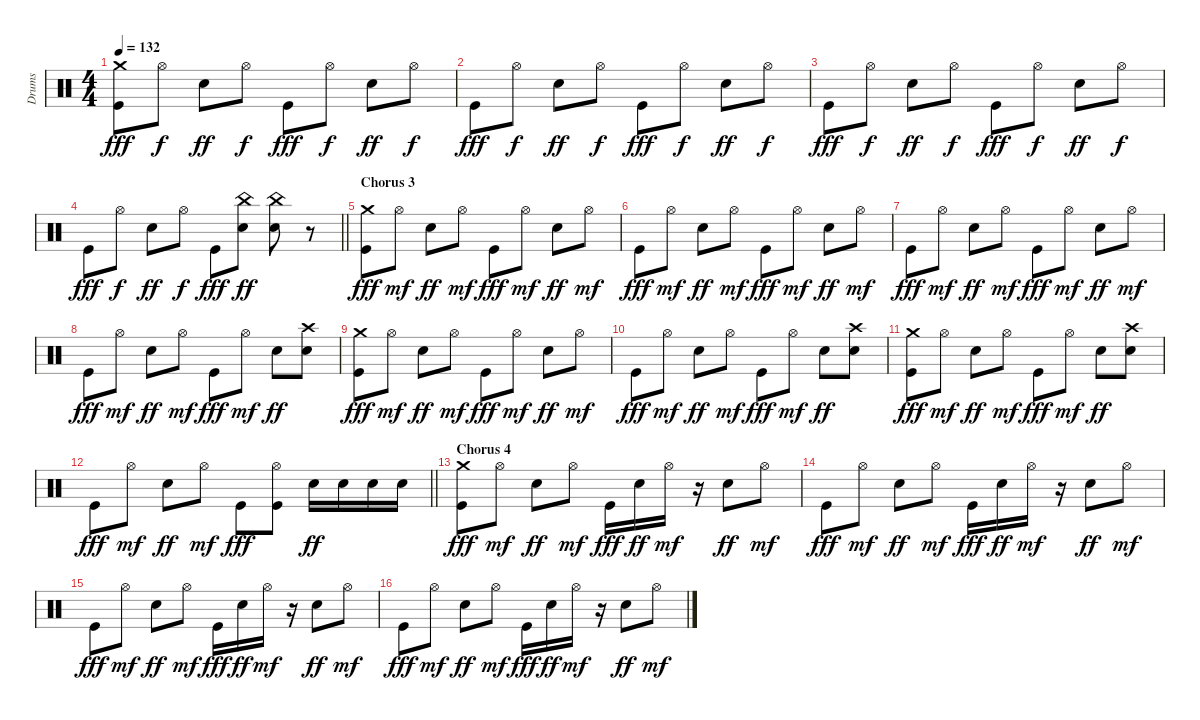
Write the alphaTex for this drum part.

\track ("Drums" "Drums") {instrument percussion}
\staff {score}
\articulation defaults
\ts (4 4)
\tempo 132
\clef neutral
\ks c
("Crash medium (hit)" "Kick (hit)").8{dy fff} "Hi-Hat (open)".8{dy f} "Snare (hit) 2".8{dy ff} "Hi-Hat (open)".8{dy f} "Kick (hit)".8{dy fff} "Hi-Hat (open)".8{dy f} "Snare (hit) 2".8{dy ff} "Hi-Hat (open)".8{dy f} |
"Kick (hit)".8{dy fff} "Hi-Hat (open)".8{dy f} "Snare (hit) 2".8{dy ff} "Hi-Hat (open)".8{dy f} "Kick (hit)".8{dy fff} "Hi-Hat (open)".8{dy f} "Snare (hit) 2".8{dy ff} "Hi-Hat (open)".8{dy f} |
"Kick (hit)".8{dy fff} "Hi-Hat (open)".8{dy f} "Snare (hit) 2".8{dy ff} "Hi-Hat (open)".8{dy f} "Kick (hit)".8{dy fff} "Hi-Hat (open)".8{dy f} "Snare (hit) 2".8{dy ff} "Hi-Hat (open)".8{dy f} |
\barLineRight lightlight "Kick (hit)".8{dy fff} "Hi-Hat (open)".8{dy f} "Snare (hit) 2".8{dy ff} "Hi-Hat (open)".8{dy f} "Kick (hit)".8{dy fff}
("China (hit)" "Snare (hit) 2").8{dy ff} ("China (hit)" "Snare (hit) 2").8 r.8 |
\section ("" "Chorus 3")
("Crash medium (hit)" "Kick (hit)").8{dy fff} "Hi-Hat (open)".8{dy mf} "Snare (hit) 2".8{dy ff} "Hi-Hat (open)".8{dy mf} "Kick (hit)".8{dy fff} "Hi-Hat (open)".8{dy mf} "Snare (hit) 2".8{dy ff} "Hi-Hat (open)".8{dy mf} |
"Kick (hit)".8{dy fff} "Hi-Hat (open)".8{dy mf} "Snare (hit) 2".8{dy ff} "Hi-Hat (open)".8{dy mf} "Kick (hit)".8{dy fff} "Hi-Hat (open)".8{dy mf} "Snare (hit) 2".8{dy ff} "Hi-Hat (open)".8{dy mf} |
"Kick (hit)".8{dy fff} "Hi-Hat (open)".8{dy mf} "Snare (hit) 2".8{dy ff} "Hi-Hat (open)".8{dy mf} "Kick (hit)".8{dy fff} "Hi-Hat (open)".8{dy mf} "Snare (hit) 2".8{dy ff} "Hi-Hat (open)".8{dy mf} |
"Kick (hit)".8{dy fff} "Hi-Hat (open)".8{dy mf} "Snare (hit) 2".8{dy ff} "Hi-Hat (open)".8{dy mf} "Kick (hit)".8{dy fff} "Hi-Hat (open)".8{dy mf} "Snare (hit) 2".8{dy ff} ("Crash high (hit)" "Snare (hit) 2").8 |
("Crash medium (hit)" "Kick (hit)").8{dy fff} "Hi-Hat (open)".8{dy mf} "Snare (hit) 2".8{dy ff} "Hi-Hat (open)".8{dy mf} "Kick (hit)".8{dy fff} "Hi-Hat (open)".8{dy mf} "Snare (hit) 2".8{dy ff} "Hi-Hat (open)".8{dy mf} |
"Kick (hit)".8{dy fff} "Hi-Hat (open)".8{dy mf} "Snare (hit) 2".8{dy ff} "Hi-Hat (open)".8{dy mf} "Kick (hit)".8{dy fff} "Hi-Hat (open)".8{dy mf} "Snare (hit) 2".8{dy ff} ("Crash high (hit)" "Snare (hit) 2").8 |
("Crash medium (hit)" "Kick (hit)").8{dy fff} "Hi-Hat (open)".8{dy mf} "Snare (hit) 2".8{dy ff} "Hi-Hat (open)".8{dy mf} "Kick (hit)".8{dy fff} "Hi-Hat (open)".8{dy mf} "Snare (hit) 2".8{dy ff} ("Crash high (hit)" "Snare (hit) 2").8 |
\barLineRight lightlight "Kick (hit)".8{dy fff} "Hi-Hat (open)".8{dy mf} "Snare (hit) 2".8{dy ff} "Hi-Hat (open)".8{dy mf} "Kick (hit)".8{dy fff}
("Hi-Hat (open)" "Kick (hit)").8 "Snare (hit) 2".16{dy ff} "Snare (hit) 2".16 "Snare (hit) 2".16 "Snare (hit) 2".16 |
\section ("" "Chorus 4")
("Crash medium (hit)" "Kick (hit)").8{dy fff} "Hi-Hat (open)".8{dy mf} "Snare (hit) 2".8{dy ff} "Hi-Hat (open)".8{dy mf} "Kick (hit)".16{dy fff} "Snare (hit) 2".16{dy ff} "Hi-Hat (open)".16{dy mf} r.16 "Snare (hit) 2".8{dy ff} "Hi-Hat (open)".8{dy mf} |
"Kick (hit)".8{dy fff} "Hi-Hat (open)".8{dy mf} "Snare (hit) 2".8{dy ff} "Hi-Hat (open)".8{dy mf} "Kick (hit)".16{dy fff} "Snare (hit) 2".16{dy ff} "Hi-Hat (open)".16{dy mf} r.16 "Snare (hit) 2".8{dy ff} "Hi-Hat (open)".8{dy mf} |
"Kick (hit)".8{dy fff} "Hi-Hat (open)".8{dy mf} "Snare (hit) 2".8{dy ff} "Hi-Hat (open)".8{dy mf} "Kick (hit)".16{dy fff} "Snare (hit) 2".16{dy ff} "Hi-Hat (open)".16{dy mf} r.16 "Snare (hit) 2".8{dy ff} "Hi-Hat (open)".8{dy mf} |
"Kick (hit)".8{dy fff} "Hi-Hat (open)".8{dy mf} "Snare (hit) 2".8{dy ff} "Hi-Hat (open)".8{dy mf} "Kick (hit)".16{dy fff} "Snare (hit) 2".16{dy ff} "Hi-Hat (open)".16{dy mf} r.16 "Snare (hit) 2".8{dy ff} "Hi-Hat (open)".8{dy mf}
